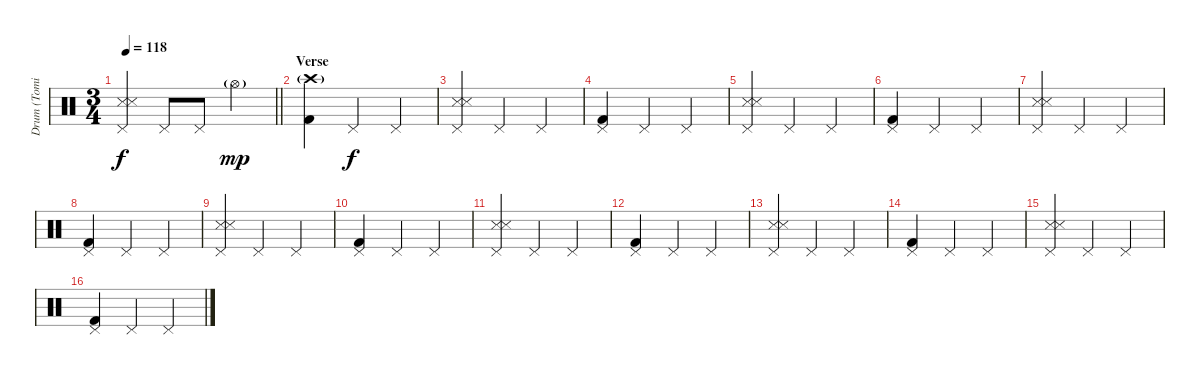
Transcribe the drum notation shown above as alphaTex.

\track ("Drum (Tomi)" "Drum (Tomi") {instrument percussion}
\staff {score}
\articulation defaults
\ts (3 4)
\tempo 118
\clef neutral
\barLineRight lightlight
\ks c
("Snare (side stick) 3" "Pedal Hi-Hat (hit)" "Snare (side stick) 3").4{dy f} "Pedal Hi-Hat (hit)".8 "Pedal Hi-Hat (hit)".8 "Hi-Hat (open)"{g}.4{dy mp} |
\section ("" "Verse")
("Crash high (hit)"{g} "Kick (hit) 2").4 "Pedal Hi-Hat (hit)".4{dy f} "Pedal Hi-Hat (hit)".4 |
("Snare (side stick) 3" "Pedal Hi-Hat (hit)" "Snare (side stick) 3").4 "Pedal Hi-Hat (hit)".4 "Pedal Hi-Hat (hit)".4 |
("Pedal Hi-Hat (hit)" "Kick (hit) 2").4 "Pedal Hi-Hat (hit)".4 "Pedal Hi-Hat (hit)".4 |
("Snare (side stick) 3" "Pedal Hi-Hat (hit)" "Snare (side stick) 3").4 "Pedal Hi-Hat (hit)".4 "Pedal Hi-Hat (hit)".4 |
("Pedal Hi-Hat (hit)" "Kick (hit) 2").4 "Pedal Hi-Hat (hit)".4 "Pedal Hi-Hat (hit)".4 |
("Snare (side stick) 3" "Pedal Hi-Hat (hit)" "Snare (side stick) 3").4 "Pedal Hi-Hat (hit)".4 "Pedal Hi-Hat (hit)".4 |
("Pedal Hi-Hat (hit)" "Kick (hit) 2").4 "Pedal Hi-Hat (hit)".4 "Pedal Hi-Hat (hit)".4 |
("Snare (side stick) 3" "Pedal Hi-Hat (hit)" "Snare (side stick) 3").4 "Pedal Hi-Hat (hit)".4 "Pedal Hi-Hat (hit)".4 |
("Pedal Hi-Hat (hit)" "Kick (hit) 2").4 "Pedal Hi-Hat (hit)".4 "Pedal Hi-Hat (hit)".4 |
("Snare (side stick) 3" "Pedal Hi-Hat (hit)" "Snare (side stick) 3").4 "Pedal Hi-Hat (hit)".4 "Pedal Hi-Hat (hit)".4 |
("Pedal Hi-Hat (hit)" "Kick (hit) 2").4 "Pedal Hi-Hat (hit)".4 "Pedal Hi-Hat (hit)".4 |
("Snare (side stick) 3" "Pedal Hi-Hat (hit)" "Snare (side stick) 3").4 "Pedal Hi-Hat (hit)".4 "Pedal Hi-Hat (hit)".4 |
("Pedal Hi-Hat (hit)" "Kick (hit) 2").4 "Pedal Hi-Hat (hit)".4 "Pedal Hi-Hat (hit)".4 |
("Snare (side stick) 3" "Pedal Hi-Hat (hit)" "Snare (side stick) 3").4 "Pedal Hi-Hat (hit)".4 "Pedal Hi-Hat (hit)".4 |
("Pedal Hi-Hat (hit)" "Kick (hit) 2").4 "Pedal Hi-Hat (hit)".4 "Pedal Hi-Hat (hit)".4
